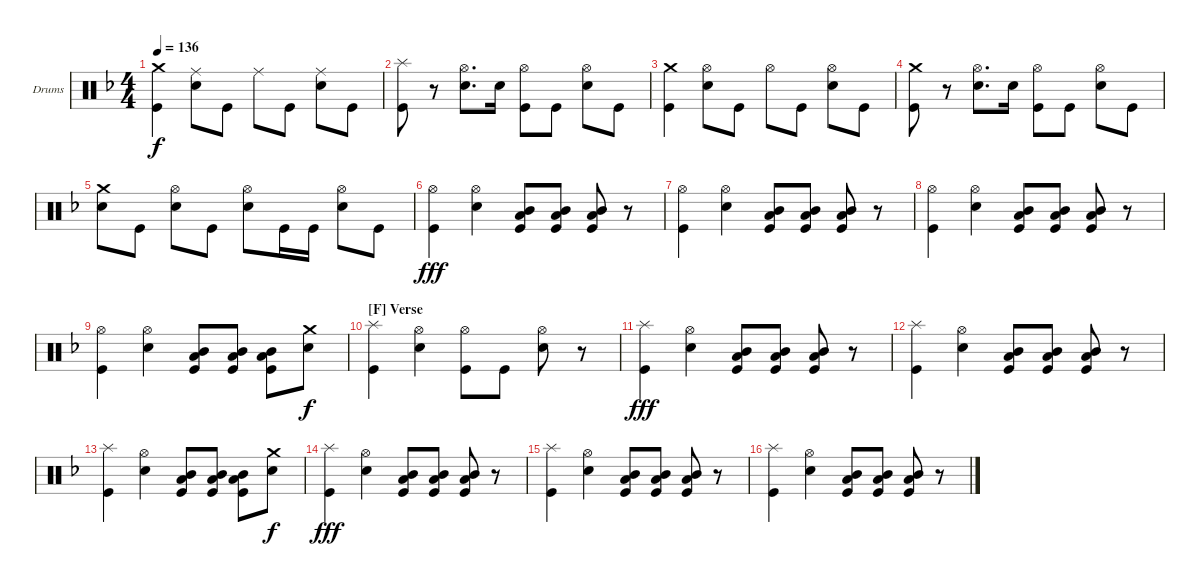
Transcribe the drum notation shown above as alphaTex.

\defaultSystemsLayout 4
\bracketExtendMode groupsimilarinstruments
\firstSystemTrackNameOrientation horizontal
\otherSystemsTrackNameOrientation horizontal
\track ("Drumkit" "Drums") {instrument percussion}
\staff {score}
\articulation defaults
\ts (4 4)
\tempo 136
\clef neutral
\scale
1.08323
\ks f
("Crash medium (hit)" "Kick (hit)").4{dy f} ("Ride (middle)" "Snare (hit) 2").8 "Kick (hit)".8 "Ride (middle)".8 "Kick (hit)".8 ("Ride (middle)" "Snare (hit) 2").8 "Kick (hit)".8 |
\scale
0.958386 ("Splash (hit)" "Kick (hit)").8 r.8 ("Hi-Hat (open)" "Snare (hit) 2").8{d} "Snare (hit) 2".16 ("Hi-Hat (open)" "Kick (hit)").8 "Kick (hit)".8 ("Hi-Hat (open)" "Snare (hit) 2").8 "Kick (hit)".8 |
\scale
0.958386 ("Crash medium (hit)" "Kick (hit)").4 ("Hi-Hat (open)" "Snare (hit) 2").8 "Kick (hit)".8 "Hi-Hat (open)".8 "Kick (hit)".8 ("Hi-Hat (open)" "Snare (hit) 2").8 "Kick (hit)".8 |
\scale
1.08323 ("Crash medium (hit)" "Kick (hit)").8 r.8 ("Hi-Hat (open)" "Snare (hit) 2").8{d} "Snare (hit) 2".16 ("Hi-Hat (open)" "Kick (hit)").8 "Kick (hit)".8 ("Hi-Hat (open)" "Snare (hit) 2").8 "Kick (hit)".8 |
\scale
0.958386 ("Crash medium (hit)" "Snare (hit) 2").8 "Kick (hit)".8 ("Hi-Hat (open)" "Snare (hit) 2").8 "Kick (hit)".8 ("Hi-Hat (open)" "Snare (hit) 2").8 "Kick (hit)".16 "Kick (hit)".16 ("Hi-Hat (open)" "Snare (hit) 2").8 "Kick (hit)".8 |
\scale
0.958386 ("Kick (hit)" "Hi-Hat (open)").4{dy fff} ("Snare (hit) 2" "Hi-Hat (open)").4 ("Kick (hit)" "Low Tom (hit)" "Mid Tom (hit)").8 ("Kick (hit)" "Low Tom (hit)" "Mid Tom (hit)").8 ("Kick (hit)" "Low Tom (hit)" "Mid Tom (hit)").8 r.8 |
\scale
1.08323 ("Kick (hit)" "Hi-Hat (open)").4 ("Snare (hit) 2" "Hi-Hat (open)").4 ("Kick (hit)" "Low Tom (hit)" "Mid Tom (hit)").8 ("Kick (hit)" "Low Tom (hit)" "Mid Tom (hit)").8 ("Kick (hit)" "Low Tom (hit)" "Mid Tom (hit)").8 r.8 |
\scale
0.958386 ("Kick (hit)" "Hi-Hat (open)").4 ("Snare (hit) 2" "Hi-Hat (open)").4 ("Kick (hit)" "Low Tom (hit)" "Mid Tom (hit)").8 ("Kick (hit)" "Low Tom (hit)" "Mid Tom (hit)").8 ("Kick (hit)" "Low Tom (hit)" "Mid Tom (hit)").8 r.8 |
\scale
0.958386 ("Kick (hit)" "Hi-Hat (open)").4 ("Snare (hit) 2" "Hi-Hat (open)").4 ("Kick (hit)" "Low Tom (hit)" "Mid Tom (hit)").8 ("Kick (hit)" "Low Tom (hit)" "Mid Tom (hit)").8 ("Kick (hit)" "Low Tom (hit)" "Mid Tom (hit)").8 ("Crash medium (hit)" "Snare (hit) 2").8{dy f} |
\section ("F" "Verse")
\scale
1.08323 ("Splash (hit)" "Kick (hit)").4 ("Hi-Hat (open)" "Snare (hit) 2").4 ("Hi-Hat (open)" "Kick (hit)").8 "Kick (hit)".8 ("Hi-Hat (open)" "Snare (hit) 2").8 r.8 |
\scale
0.958386 ("Kick (hit)" "Splash (hit)").4{dy fff} ("Snare (hit) 2" "Hi-Hat (open)").4 ("Kick (hit)" "Low Tom (hit)" "Mid Tom (hit)").8 ("Kick (hit)" "Low Tom (hit)" "Mid Tom (hit)").8 ("Kick (hit)" "Low Tom (hit)" "Mid Tom (hit)").8 r.8 |
\scale
0.958386 ("Kick (hit)" "Splash (hit)").4 ("Snare (hit) 2" "Hi-Hat (open)").4 ("Kick (hit)" "Low Tom (hit)" "Mid Tom (hit)").8 ("Kick (hit)" "Low Tom (hit)" "Mid Tom (hit)").8 ("Kick (hit)" "Low Tom (hit)" "Mid Tom (hit)").8 r.8 |
\scale
1.08323 ("Kick (hit)" "Splash (hit)").4 ("Snare (hit) 2" "Hi-Hat (open)").4 ("Kick (hit)" "Low Tom (hit)" "Mid Tom (hit)").8 ("Kick (hit)" "Low Tom (hit)" "Mid Tom (hit)").8 ("Kick (hit)" "Low Tom (hit)" "Mid Tom (hit)").8 ("Crash medium (hit)" "Snare (hit) 2").8{dy f} |
\scale
0.958386 ("Kick (hit)" "Splash (hit)").4{dy fff} ("Snare (hit) 2" "Hi-Hat (open)").4 ("Kick (hit)" "Low Tom (hit)" "Mid Tom (hit)").8 ("Kick (hit)" "Low Tom (hit)" "Mid Tom (hit)").8 ("Kick (hit)" "Low Tom (hit)" "Mid Tom (hit)").8 r.8 |
\scale
0.958386 ("Kick (hit)" "Splash (hit)").4 ("Snare (hit) 2" "Hi-Hat (open)").4 ("Kick (hit)" "Low Tom (hit)" "Mid Tom (hit)").8 ("Kick (hit)" "Low Tom (hit)" "Mid Tom (hit)").8 ("Kick (hit)" "Low Tom (hit)" "Mid Tom (hit)").8 r.8 |
\scale
1.08323 ("Kick (hit)" "Splash (hit)").4 ("Snare (hit) 2" "Hi-Hat (open)").4 ("Kick (hit)" "Low Tom (hit)" "Mid Tom (hit)").8 ("Kick (hit)" "Low Tom (hit)" "Mid Tom (hit)").8 ("Kick (hit)" "Low Tom (hit)" "Mid Tom (hit)").8 r.8
